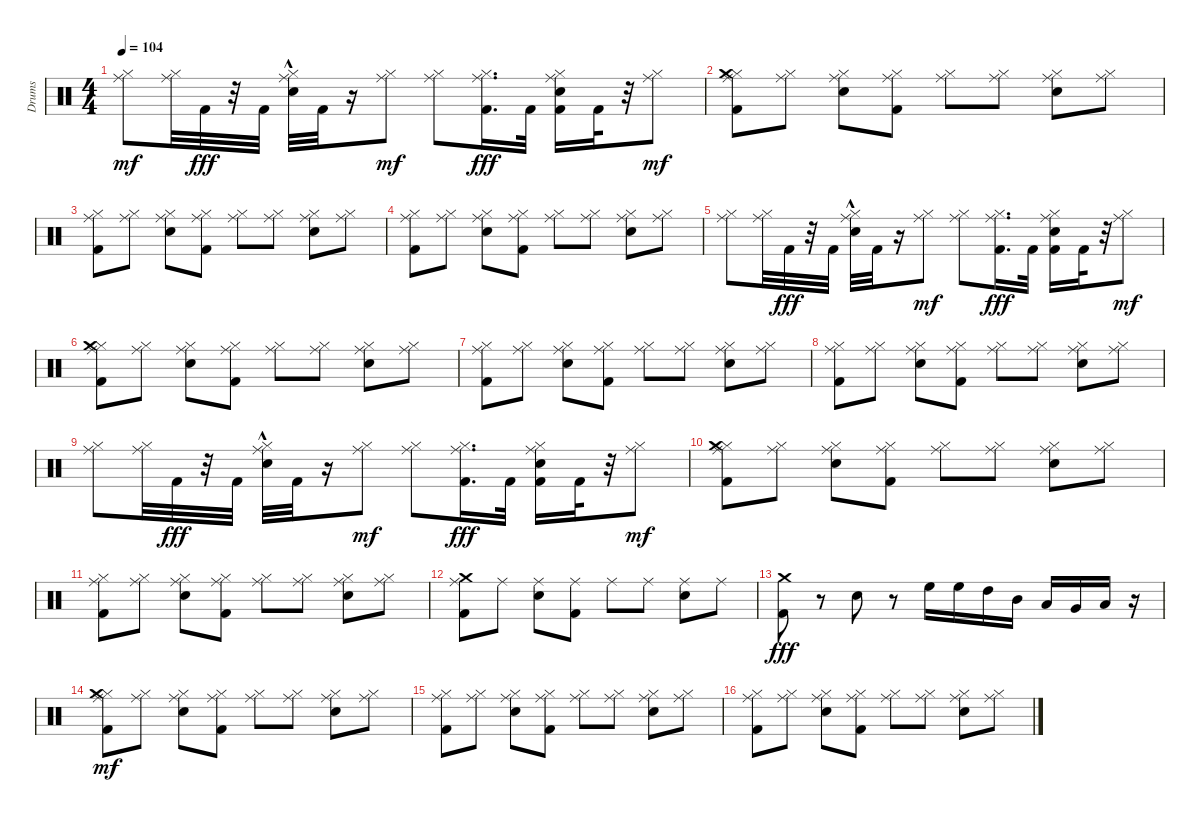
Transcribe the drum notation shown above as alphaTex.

\track ("Drums" "Drums") {instrument percussion}
\staff {score}
\articulation defaults
\ts (4 4)
\tempo 104
\clef neutral
\ks c
("Hi-Hat (closed)" "Ride (middle)").8{dy mf} ("Hi-Hat (closed)" "Ride (middle)").32 "Kick (hit) 2".32{dy fff} r.32 "Kick (hit) 2".32 ("Hi-Hat (closed)" "Ride (middle)" "Snare (hit) 2"{hac}).32 "Kick (hit) 2".32 r.16 ("Hi-Hat (closed)" "Ride (middle)").8{dy mf} ("Hi-Hat (closed)" "Ride (middle)").8 ("Hi-Hat (closed)" "Ride (middle)" "Kick (hit) 2").16{d dy fff} "Kick (hit) 2".32 ("Snare (hit) 2" "Hi-Hat (closed)" "Ride (middle)" "Kick (hit) 2").16 "Kick (hit) 2".32 r.32 ("Hi-Hat (closed)" "Ride (middle)").8{dy mf} |
("Kick (hit) 2" "Hi-Hat (closed)" "Crash medium (hit)" "Ride (middle)").8 ("Hi-Hat (closed)" "Ride (middle)").8 ("Snare (hit) 2" "Hi-Hat (closed)" "Ride (middle)").8 ("Kick (hit) 2" "Hi-Hat (closed)" "Ride (middle)").8 ("Hi-Hat (closed)" "Ride (middle)").8 ("Hi-Hat (closed)" "Ride (middle)").8 ("Snare (hit) 2" "Hi-Hat (closed)" "Ride (middle)").8 ("Hi-Hat (closed)" "Ride (middle)").8 |
("Kick (hit) 2" "Hi-Hat (closed)" "Ride (middle)").8 ("Hi-Hat (closed)" "Ride (middle)").8 ("Snare (hit) 2" "Hi-Hat (closed)" "Ride (middle)").8 ("Kick (hit) 2" "Hi-Hat (closed)" "Ride (middle)").8 ("Hi-Hat (closed)" "Ride (middle)").8 ("Hi-Hat (closed)" "Ride (middle)").8 ("Snare (hit) 2" "Hi-Hat (closed)" "Ride (middle)").8 ("Hi-Hat (closed)" "Ride (middle)").8 |
("Kick (hit) 2" "Hi-Hat (closed)" "Ride (middle)").8 ("Hi-Hat (closed)" "Ride (middle)").8 ("Snare (hit) 2" "Hi-Hat (closed)" "Ride (middle)").8 ("Kick (hit) 2" "Hi-Hat (closed)" "Ride (middle)").8 ("Hi-Hat (closed)" "Ride (middle)").8 ("Hi-Hat (closed)" "Ride (middle)").8 ("Snare (hit) 2" "Hi-Hat (closed)" "Ride (middle)").8 ("Hi-Hat (closed)" "Ride (middle)").8 |
("Hi-Hat (closed)" "Ride (middle)").8 ("Hi-Hat (closed)" "Ride (middle)").32 "Kick (hit) 2".32{dy fff} r.32 "Kick (hit) 2".32 ("Hi-Hat (closed)" "Ride (middle)" "Snare (hit) 2"{hac}).32 "Kick (hit) 2".32 r.16 ("Hi-Hat (closed)" "Ride (middle)").8{dy mf} ("Hi-Hat (closed)" "Ride (middle)").8 ("Hi-Hat (closed)" "Ride (middle)" "Kick (hit) 2").16{d dy fff} "Kick (hit) 2".32 ("Snare (hit) 2" "Hi-Hat (closed)" "Ride (middle)" "Kick (hit) 2").16 "Kick (hit) 2".32 r.32 ("Hi-Hat (closed)" "Ride (middle)").8{dy mf} |
("Kick (hit) 2" "Hi-Hat (closed)" "Crash medium (hit)" "Ride (middle)").8 ("Hi-Hat (closed)" "Ride (middle)").8 ("Snare (hit) 2" "Hi-Hat (closed)" "Ride (middle)").8 ("Kick (hit) 2" "Hi-Hat (closed)" "Ride (middle)").8 ("Hi-Hat (closed)" "Ride (middle)").8 ("Hi-Hat (closed)" "Ride (middle)").8 ("Snare (hit) 2" "Hi-Hat (closed)" "Ride (middle)").8 ("Hi-Hat (closed)" "Ride (middle)").8 |
("Kick (hit) 2" "Hi-Hat (closed)" "Ride (middle)").8 ("Hi-Hat (closed)" "Ride (middle)").8 ("Snare (hit) 2" "Hi-Hat (closed)" "Ride (middle)").8 ("Kick (hit) 2" "Hi-Hat (closed)" "Ride (middle)").8 ("Hi-Hat (closed)" "Ride (middle)").8 ("Hi-Hat (closed)" "Ride (middle)").8 ("Snare (hit) 2" "Hi-Hat (closed)" "Ride (middle)").8 ("Hi-Hat (closed)" "Ride (middle)").8 |
("Kick (hit) 2" "Hi-Hat (closed)" "Ride (middle)").8 ("Hi-Hat (closed)" "Ride (middle)").8 ("Snare (hit) 2" "Hi-Hat (closed)" "Ride (middle)").8 ("Kick (hit) 2" "Hi-Hat (closed)" "Ride (middle)").8 ("Hi-Hat (closed)" "Ride (middle)").8 ("Hi-Hat (closed)" "Ride (middle)").8 ("Snare (hit) 2" "Hi-Hat (closed)" "Ride (middle)").8 ("Hi-Hat (closed)" "Ride (middle)").8 |
("Hi-Hat (closed)" "Ride (middle)").8 ("Hi-Hat (closed)" "Ride (middle)").32 "Kick (hit) 2".32{dy fff} r.32 "Kick (hit) 2".32 ("Hi-Hat (closed)" "Ride (middle)" "Snare (hit) 2"{hac}).32 "Kick (hit) 2".32 r.16 ("Hi-Hat (closed)" "Ride (middle)").8{dy mf} ("Hi-Hat (closed)" "Ride (middle)").8 ("Hi-Hat (closed)" "Ride (middle)" "Kick (hit) 2").16{d dy fff} "Kick (hit) 2".32 ("Snare (hit) 2" "Hi-Hat (closed)" "Ride (middle)" "Kick (hit) 2").16 "Kick (hit) 2".32 r.32 ("Hi-Hat (closed)" "Ride (middle)").8{dy mf} |
("Kick (hit) 2" "Hi-Hat (closed)" "Crash medium (hit)" "Ride (middle)").8 ("Hi-Hat (closed)" "Ride (middle)").8 ("Snare (hit) 2" "Hi-Hat (closed)" "Ride (middle)").8 ("Kick (hit) 2" "Hi-Hat (closed)" "Ride (middle)").8 ("Hi-Hat (closed)" "Ride (middle)").8 ("Hi-Hat (closed)" "Ride (middle)").8 ("Snare (hit) 2" "Hi-Hat (closed)" "Ride (middle)").8 ("Hi-Hat (closed)" "Ride (middle)").8 |
("Kick (hit) 2" "Hi-Hat (closed)" "Ride (middle)").8 ("Hi-Hat (closed)" "Ride (middle)").8 ("Snare (hit) 2" "Hi-Hat (closed)" "Ride (middle)").8 ("Kick (hit) 2" "Hi-Hat (closed)" "Ride (middle)").8 ("Hi-Hat (closed)" "Ride (middle)").8 ("Hi-Hat (closed)" "Ride (middle)").8 ("Snare (hit) 2" "Hi-Hat (closed)" "Ride (middle)").8 ("Hi-Hat (closed)" "Ride (middle)").8 |
("Kick (hit) 2" "Crash medium (hit)" "Ride (middle)").8 "Ride (middle)".8 ("Snare (hit) 2" "Ride (middle)").8 ("Kick (hit) 2" "Ride (middle)").8 "Ride (middle)".8 "Ride (middle)".8 ("Snare (hit) 2" "Ride (middle)").8 "Ride (middle)".8 |
("Kick (hit) 2" "Crash medium (hit)").8{dy fff} r.8 "Snare (hit) 2".8 r.8 "High Floor Tom (hit)".16 "High Floor Tom (hit)".16 "High Tom (hit)".16 "Mid Tom (hit)".16 "Low Tom (hit)".16 "Very Low Tom (hit)".16 "Low Floor Tom (hit)".16 r.16 |
("Kick (hit) 2" "Hi-Hat (closed)" "Crash medium (hit)" "Ride (middle)").8{dy mf} ("Hi-Hat (closed)" "Ride (middle)").8 ("Snare (hit) 2" "Hi-Hat (closed)" "Ride (middle)").8 ("Kick (hit) 2" "Hi-Hat (closed)" "Ride (middle)").8 ("Hi-Hat (closed)" "Ride (middle)").8 ("Hi-Hat (closed)" "Ride (middle)").8 ("Snare (hit) 2" "Hi-Hat (closed)" "Ride (middle)").8 ("Hi-Hat (closed)" "Ride (middle)").8 |
("Kick (hit) 2" "Hi-Hat (closed)" "Ride (middle)").8 ("Hi-Hat (closed)" "Ride (middle)").8 ("Snare (hit) 2" "Hi-Hat (closed)" "Ride (middle)").8 ("Kick (hit) 2" "Hi-Hat (closed)" "Ride (middle)").8 ("Hi-Hat (closed)" "Ride (middle)").8 ("Hi-Hat (closed)" "Ride (middle)").8 ("Snare (hit) 2" "Hi-Hat (closed)" "Ride (middle)").8 ("Hi-Hat (closed)" "Ride (middle)").8 |
("Kick (hit) 2" "Hi-Hat (closed)" "Ride (middle)").8 ("Hi-Hat (closed)" "Ride (middle)").8 ("Snare (hit) 2" "Hi-Hat (closed)" "Ride (middle)").8 ("Kick (hit) 2" "Hi-Hat (closed)" "Ride (middle)").8 ("Hi-Hat (closed)" "Ride (middle)").8 ("Hi-Hat (closed)" "Ride (middle)").8 ("Snare (hit) 2" "Hi-Hat (closed)" "Ride (middle)").8 ("Hi-Hat (closed)" "Ride (middle)").8
